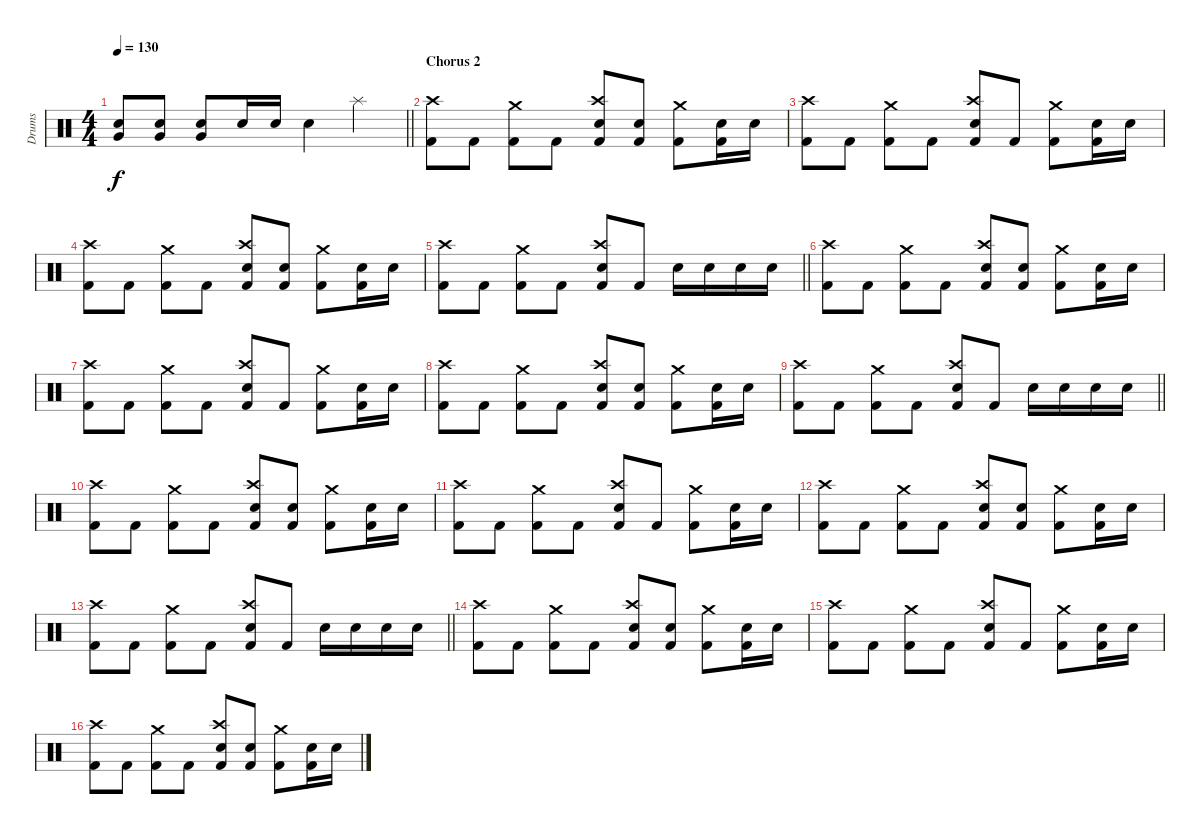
\track ("Drums" "Drums") {instrument percussion}
\staff {score}
\articulation defaults
\ts (4 4)
\tempo 130
\clef neutral
\barLineRight lightlight
\ks c
("Electric Snare (hit)" "Very Low Tom (hit)").8{dy f} ("Electric Snare (hit)" "Very Low Tom (hit)").8 ("Electric Snare (hit)" "Very Low Tom (hit)").8 "Electric Snare (hit)".16 "Electric Snare (hit)".16 "Electric Snare (hit)".4 "Splash (hit)".4 |
\section ("" "Chorus 2")
("Crash high (hit)" "Kick (hit) 2").8 "Kick (hit) 2".8 ("Crash medium (hit)" "Kick (hit) 2").8 "Kick (hit) 2".8 ("Crash high (hit)" "Electric Snare (hit)" "Kick (hit) 2").8 ("Electric Snare (hit)" "Kick (hit) 2").8 ("Crash medium (hit)" "Kick (hit) 2").8 ("Electric Snare (hit)" "Kick (hit) 2").16 "Electric Snare (hit)".16 |
("Crash high (hit)" "Kick (hit) 2").8 "Kick (hit) 2".8 ("Crash medium (hit)" "Kick (hit) 2").8 "Kick (hit) 2".8 ("Crash high (hit)" "Electric Snare (hit)" "Kick (hit) 2").8 "Kick (hit) 2".8 ("Crash medium (hit)" "Kick (hit) 2").8 ("Electric Snare (hit)" "Kick (hit) 2").16 "Electric Snare (hit)".16 |
("Crash high (hit)" "Kick (hit) 2").8 "Kick (hit) 2".8 ("Crash medium (hit)" "Kick (hit) 2").8 "Kick (hit) 2".8 ("Crash high (hit)" "Electric Snare (hit)" "Kick (hit) 2").8 ("Electric Snare (hit)" "Kick (hit) 2").8 ("Crash medium (hit)" "Kick (hit) 2").8 ("Electric Snare (hit)" "Kick (hit) 2").16 "Electric Snare (hit)".16 |
\barLineRight lightlight
("Crash high (hit)" "Kick (hit) 2").8 "Kick (hit) 2".8 ("Crash medium (hit)" "Kick (hit) 2").8 "Kick (hit) 2".8 ("Crash high (hit)" "Electric Snare (hit)" "Kick (hit) 2").8 "Kick (hit) 2".8 "Electric Snare (hit)".16 "Electric Snare (hit)".16 "Electric Snare (hit)".16 "Electric Snare (hit)".16 |
("Crash high (hit)" "Kick (hit) 2").8 "Kick (hit) 2".8 ("Crash medium (hit)" "Kick (hit) 2").8 "Kick (hit) 2".8 ("Crash high (hit)" "Electric Snare (hit)" "Kick (hit) 2").8 ("Electric Snare (hit)" "Kick (hit) 2").8 ("Crash medium (hit)" "Kick (hit) 2").8 ("Electric Snare (hit)" "Kick (hit) 2").16 "Electric Snare (hit)".16 |
("Crash high (hit)" "Kick (hit) 2").8 "Kick (hit) 2".8 ("Crash medium (hit)" "Kick (hit) 2").8 "Kick (hit) 2".8 ("Crash high (hit)" "Electric Snare (hit)" "Kick (hit) 2").8 "Kick (hit) 2".8 ("Crash medium (hit)" "Kick (hit) 2").8 ("Electric Snare (hit)" "Kick (hit) 2").16 "Electric Snare (hit)".16 |
("Crash high (hit)" "Kick (hit) 2").8 "Kick (hit) 2".8 ("Crash medium (hit)" "Kick (hit) 2").8 "Kick (hit) 2".8 ("Crash high (hit)" "Electric Snare (hit)" "Kick (hit) 2").8 ("Electric Snare (hit)" "Kick (hit) 2").8 ("Crash medium (hit)" "Kick (hit) 2").8 ("Electric Snare (hit)" "Kick (hit) 2").16 "Electric Snare (hit)".16 |
\barLineRight lightlight
("Crash high (hit)" "Kick (hit) 2").8 "Kick (hit) 2".8 ("Crash medium (hit)" "Kick (hit) 2").8 "Kick (hit) 2".8 ("Crash high (hit)" "Electric Snare (hit)" "Kick (hit) 2").8 "Kick (hit) 2".8 "Electric Snare (hit)".16 "Electric Snare (hit)".16 "Electric Snare (hit)".16 "Electric Snare (hit)".16 |
("Crash high (hit)" "Kick (hit) 2").8 "Kick (hit) 2".8 ("Crash medium (hit)" "Kick (hit) 2").8 "Kick (hit) 2".8 ("Crash high (hit)" "Electric Snare (hit)" "Kick (hit) 2").8 ("Electric Snare (hit)" "Kick (hit) 2").8 ("Crash medium (hit)" "Kick (hit) 2").8 ("Electric Snare (hit)" "Kick (hit) 2").16 "Electric Snare (hit)".16 |
("Crash high (hit)" "Kick (hit) 2").8 "Kick (hit) 2".8 ("Crash medium (hit)" "Kick (hit) 2").8 "Kick (hit) 2".8 ("Crash high (hit)" "Electric Snare (hit)" "Kick (hit) 2").8 "Kick (hit) 2".8 ("Crash medium (hit)" "Kick (hit) 2").8 ("Electric Snare (hit)" "Kick (hit) 2").16 "Electric Snare (hit)".16 |
("Crash high (hit)" "Kick (hit) 2").8 "Kick (hit) 2".8 ("Crash medium (hit)" "Kick (hit) 2").8 "Kick (hit) 2".8 ("Crash high (hit)" "Electric Snare (hit)" "Kick (hit) 2").8 ("Electric Snare (hit)" "Kick (hit) 2").8 ("Crash medium (hit)" "Kick (hit) 2").8 ("Electric Snare (hit)" "Kick (hit) 2").16 "Electric Snare (hit)".16 |
\barLineRight lightlight
("Crash high (hit)" "Kick (hit) 2").8 "Kick (hit) 2".8 ("Crash medium (hit)" "Kick (hit) 2").8 "Kick (hit) 2".8 ("Crash high (hit)" "Electric Snare (hit)" "Kick (hit) 2").8 "Kick (hit) 2".8 "Electric Snare (hit)".16 "Electric Snare (hit)".16 "Electric Snare (hit)".16 "Electric Snare (hit)".16 |
("Crash high (hit)" "Kick (hit) 2").8 "Kick (hit) 2".8 ("Crash medium (hit)" "Kick (hit) 2").8 "Kick (hit) 2".8 ("Crash high (hit)" "Electric Snare (hit)" "Kick (hit) 2").8 ("Electric Snare (hit)" "Kick (hit) 2").8 ("Crash medium (hit)" "Kick (hit) 2").8 ("Electric Snare (hit)" "Kick (hit) 2").16 "Electric Snare (hit)".16 |
("Crash high (hit)" "Kick (hit) 2").8 "Kick (hit) 2".8 ("Crash medium (hit)" "Kick (hit) 2").8 "Kick (hit) 2".8 ("Crash high (hit)" "Electric Snare (hit)" "Kick (hit) 2").8 "Kick (hit) 2".8 ("Crash medium (hit)" "Kick (hit) 2").8 ("Electric Snare (hit)" "Kick (hit) 2").16 "Electric Snare (hit)".16 |
("Crash high (hit)" "Kick (hit) 2").8 "Kick (hit) 2".8 ("Crash medium (hit)" "Kick (hit) 2").8 "Kick (hit) 2".8 ("Crash high (hit)" "Electric Snare (hit)" "Kick (hit) 2").8 ("Electric Snare (hit)" "Kick (hit) 2").8 ("Crash medium (hit)" "Kick (hit) 2").8 ("Electric Snare (hit)" "Kick (hit) 2").16 "Electric Snare (hit)".16
